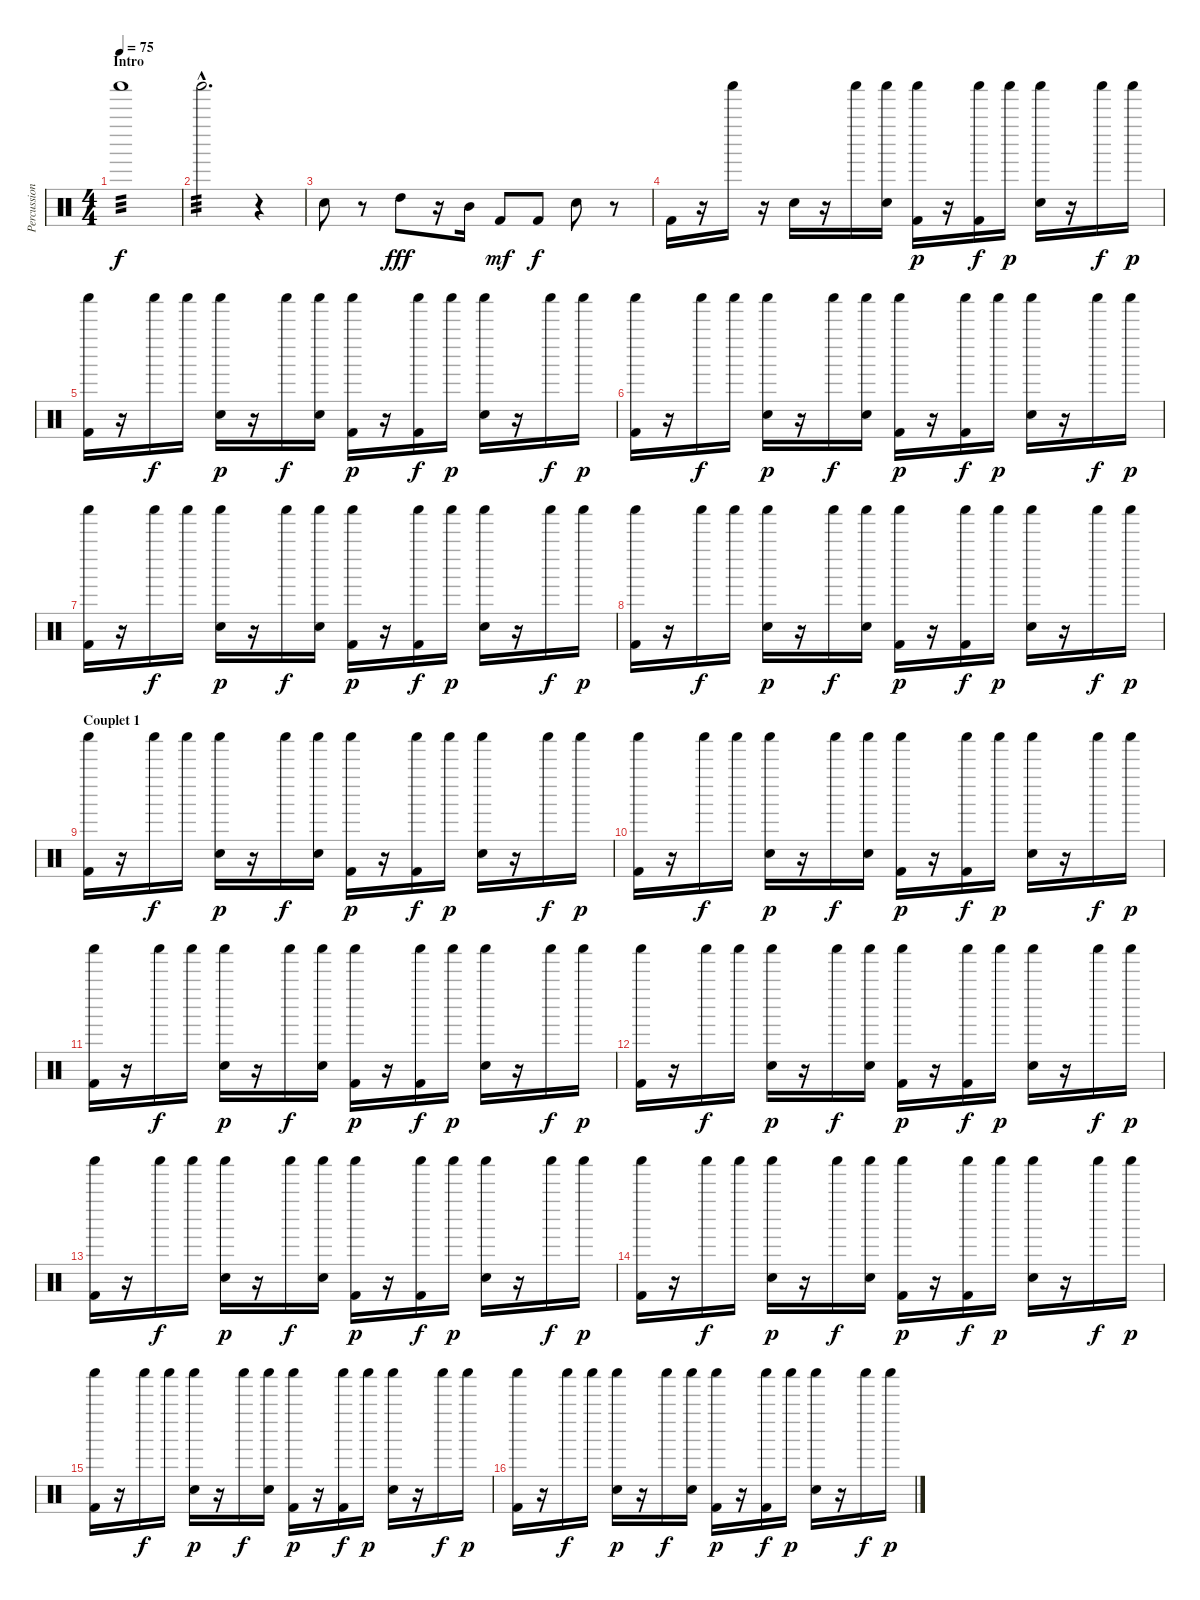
\track ("Percussions - Dom Howard" "Percussion") {instrument percussion}
\staff {score}
\articulation defaults
\ts (4 4)
\section ("" "Intro")
\tempo 75
\clef neutral
\ks c "Shaker (hit)".1{tp 3 dy f}
|
"Shaker (hit)"{hac}.2{d tp 3} r.4 |
"Electric Snare (hit)".8 r.8 "High Tom (hit)".8{dy fff} r.16 "Mid Tom (hit)".16 "Kick (hit) 2".8{dy mf} "Kick (hit) 2".8{dy f} "Electric Snare (hit)".8 r.8 |
"Kick (hit) 2".16 r.16 "Shaker (hit)".16 r.16 "Electric Snare (hit)".16 r.16 "Shaker (hit)".16 ("Electric Snare (hit)" "Shaker (hit)").16 ("Kick (hit) 2" "Shaker (hit)").16{dy p} r.16 ("Kick (hit) 2" "Shaker (hit)").16{dy f} "Shaker (hit)".16{dy p} ("Electric Snare (hit)" "Shaker (hit)").16 r.16 "Shaker (hit)".16{dy f} "Shaker (hit)".16{dy p} |
("Kick (hit) 2" "Shaker (hit)").16 r.16 "Shaker (hit)".16{dy f} "Shaker (hit)".16 ("Electric Snare (hit)" "Shaker (hit)").16{dy p} r.16 "Shaker (hit)".16{dy f} ("Electric Snare (hit)" "Shaker (hit)").16 ("Kick (hit) 2" "Shaker (hit)").16{dy p} r.16 ("Kick (hit) 2" "Shaker (hit)").16{dy f} "Shaker (hit)".16{dy p} ("Electric Snare (hit)" "Shaker (hit)").16 r.16 "Shaker (hit)".16{dy f} "Shaker (hit)".16{dy p} |
("Kick (hit) 2" "Shaker (hit)").16 r.16 "Shaker (hit)".16{dy f} "Shaker (hit)".16 ("Electric Snare (hit)" "Shaker (hit)").16{dy p} r.16 "Shaker (hit)".16{dy f} ("Electric Snare (hit)" "Shaker (hit)").16 ("Kick (hit) 2" "Shaker (hit)").16{dy p} r.16 ("Kick (hit) 2" "Shaker (hit)").16{dy f} "Shaker (hit)".16{dy p} ("Electric Snare (hit)" "Shaker (hit)").16 r.16 "Shaker (hit)".16{dy f} "Shaker (hit)".16{dy p} |
("Kick (hit) 2" "Shaker (hit)").16 r.16 "Shaker (hit)".16{dy f} "Shaker (hit)".16 ("Electric Snare (hit)" "Shaker (hit)").16{dy p} r.16 "Shaker (hit)".16{dy f} ("Electric Snare (hit)" "Shaker (hit)").16 ("Kick (hit) 2" "Shaker (hit)").16{dy p} r.16 ("Kick (hit) 2" "Shaker (hit)").16{dy f} "Shaker (hit)".16{dy p} ("Electric Snare (hit)" "Shaker (hit)").16 r.16 "Shaker (hit)".16{dy f} "Shaker (hit)".16{dy p} |
("Kick (hit) 2" "Shaker (hit)").16 r.16 "Shaker (hit)".16{dy f} "Shaker (hit)".16 ("Electric Snare (hit)" "Shaker (hit)").16{dy p} r.16 "Shaker (hit)".16{dy f} ("Electric Snare (hit)" "Shaker (hit)").16 ("Kick (hit) 2" "Shaker (hit)").16{dy p} r.16 ("Kick (hit) 2" "Shaker (hit)").16{dy f} "Shaker (hit)".16{dy p} ("Electric Snare (hit)" "Shaker (hit)").16 r.16 "Shaker (hit)".16{dy f} "Shaker (hit)".16{dy p} |
\section ("" "Couplet 1")
("Kick (hit) 2" "Shaker (hit)").16 r.16 "Shaker (hit)".16{dy f} "Shaker (hit)".16 ("Electric Snare (hit)" "Shaker (hit)").16{dy p} r.16 "Shaker (hit)".16{dy f} ("Electric Snare (hit)" "Shaker (hit)").16 ("Kick (hit) 2" "Shaker (hit)").16{dy p} r.16 ("Kick (hit) 2" "Shaker (hit)").16{dy f} "Shaker (hit)".16{dy p} ("Electric Snare (hit)" "Shaker (hit)").16 r.16 "Shaker (hit)".16{dy f} "Shaker (hit)".16{dy p} |
("Kick (hit) 2" "Shaker (hit)").16 r.16 "Shaker (hit)".16{dy f} "Shaker (hit)".16 ("Electric Snare (hit)" "Shaker (hit)").16{dy p} r.16 "Shaker (hit)".16{dy f} ("Electric Snare (hit)" "Shaker (hit)").16 ("Kick (hit) 2" "Shaker (hit)").16{dy p} r.16 ("Kick (hit) 2" "Shaker (hit)").16{dy f} "Shaker (hit)".16{dy p} ("Electric Snare (hit)" "Shaker (hit)").16 r.16 "Shaker (hit)".16{dy f} "Shaker (hit)".16{dy p} |
("Kick (hit) 2" "Shaker (hit)").16 r.16 "Shaker (hit)".16{dy f} "Shaker (hit)".16 ("Electric Snare (hit)" "Shaker (hit)").16{dy p} r.16 "Shaker (hit)".16{dy f} ("Electric Snare (hit)" "Shaker (hit)").16 ("Kick (hit) 2" "Shaker (hit)").16{dy p} r.16 ("Kick (hit) 2" "Shaker (hit)").16{dy f} "Shaker (hit)".16{dy p} ("Electric Snare (hit)" "Shaker (hit)").16 r.16 "Shaker (hit)".16{dy f} "Shaker (hit)".16{dy p} |
("Kick (hit) 2" "Shaker (hit)").16 r.16 "Shaker (hit)".16{dy f} "Shaker (hit)".16 ("Electric Snare (hit)" "Shaker (hit)").16{dy p} r.16 "Shaker (hit)".16{dy f} ("Electric Snare (hit)" "Shaker (hit)").16 ("Kick (hit) 2" "Shaker (hit)").16{dy p} r.16 ("Kick (hit) 2" "Shaker (hit)").16{dy f} "Shaker (hit)".16{dy p} ("Electric Snare (hit)" "Shaker (hit)").16 r.16 "Shaker (hit)".16{dy f} "Shaker (hit)".16{dy p} |
("Kick (hit) 2" "Shaker (hit)").16 r.16 "Shaker (hit)".16{dy f} "Shaker (hit)".16 ("Electric Snare (hit)" "Shaker (hit)").16{dy p} r.16 "Shaker (hit)".16{dy f} ("Electric Snare (hit)" "Shaker (hit)").16 ("Kick (hit) 2" "Shaker (hit)").16{dy p} r.16 ("Kick (hit) 2" "Shaker (hit)").16{dy f} "Shaker (hit)".16{dy p} ("Electric Snare (hit)" "Shaker (hit)").16 r.16 "Shaker (hit)".16{dy f} "Shaker (hit)".16{dy p} |
("Kick (hit) 2" "Shaker (hit)").16 r.16 "Shaker (hit)".16{dy f} "Shaker (hit)".16 ("Electric Snare (hit)" "Shaker (hit)").16{dy p} r.16 "Shaker (hit)".16{dy f} ("Electric Snare (hit)" "Shaker (hit)").16 ("Kick (hit) 2" "Shaker (hit)").16{dy p} r.16 ("Kick (hit) 2" "Shaker (hit)").16{dy f} "Shaker (hit)".16{dy p} ("Electric Snare (hit)" "Shaker (hit)").16 r.16 "Shaker (hit)".16{dy f} "Shaker (hit)".16{dy p} |
("Kick (hit) 2" "Shaker (hit)").16 r.16 "Shaker (hit)".16{dy f} "Shaker (hit)".16 ("Electric Snare (hit)" "Shaker (hit)").16{dy p} r.16 "Shaker (hit)".16{dy f} ("Electric Snare (hit)" "Shaker (hit)").16 ("Kick (hit) 2" "Shaker (hit)").16{dy p} r.16 ("Kick (hit) 2" "Shaker (hit)").16{dy f} "Shaker (hit)".16{dy p} ("Electric Snare (hit)" "Shaker (hit)").16 r.16 "Shaker (hit)".16{dy f} "Shaker (hit)".16{dy p} |
("Kick (hit) 2" "Shaker (hit)").16 r.16 "Shaker (hit)".16{dy f} "Shaker (hit)".16 ("Electric Snare (hit)" "Shaker (hit)").16{dy p} r.16 "Shaker (hit)".16{dy f} ("Electric Snare (hit)" "Shaker (hit)").16 ("Kick (hit) 2" "Shaker (hit)").16{dy p} r.16 ("Kick (hit) 2" "Shaker (hit)").16{dy f} "Shaker (hit)".16{dy p} ("Electric Snare (hit)" "Shaker (hit)").16 r.16 "Shaker (hit)".16{dy f} "Shaker (hit)".16{dy p}
